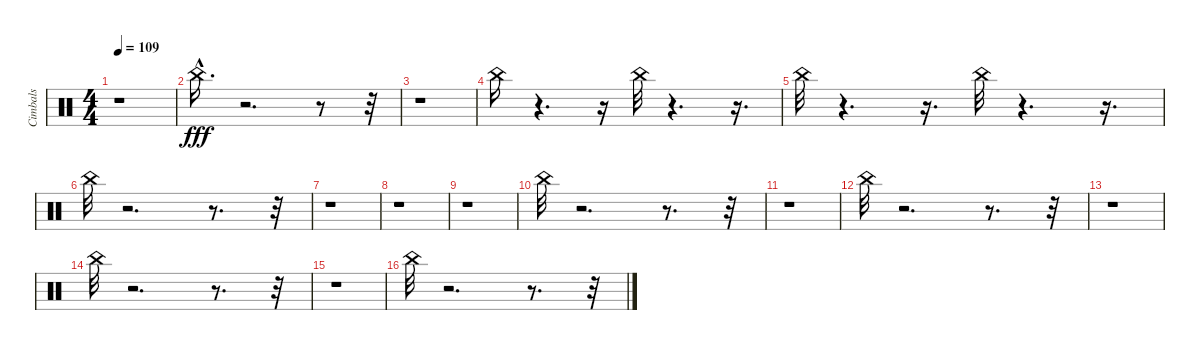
\track ("Cimbals" "Cimbals") {instrument percussion}
\staff {score}
\articulation defaults
\ts (4 4)
\tempo 109
\clef neutral
\ks c
r.1{dy fff} |
"China (choke)"{hac}.16{d} r.2{d} r.8 r.32 |
r.1 |
"China (choke)".16 r.4{d} r.16 "China (choke)".32 r.4{d} r.16{d} |
"China (choke)".32 r.4{d} r.16{d} "China (choke)".32 r.4{d} r.16{d} |
"China (choke)".32 r.2{d} r.8{d} r.32 |
r.1 |
r.1 |
r.1 |
"China (choke)".32 r.2{d} r.8{d} r.32 |
r.1 |
"China (choke)".32 r.2{d} r.8{d} r.32 |
r.1 |
"China (choke)".32 r.2{d} r.8{d} r.32 |
r.1 |
"China (choke)".32 r.2{d} r.8{d} r.32
